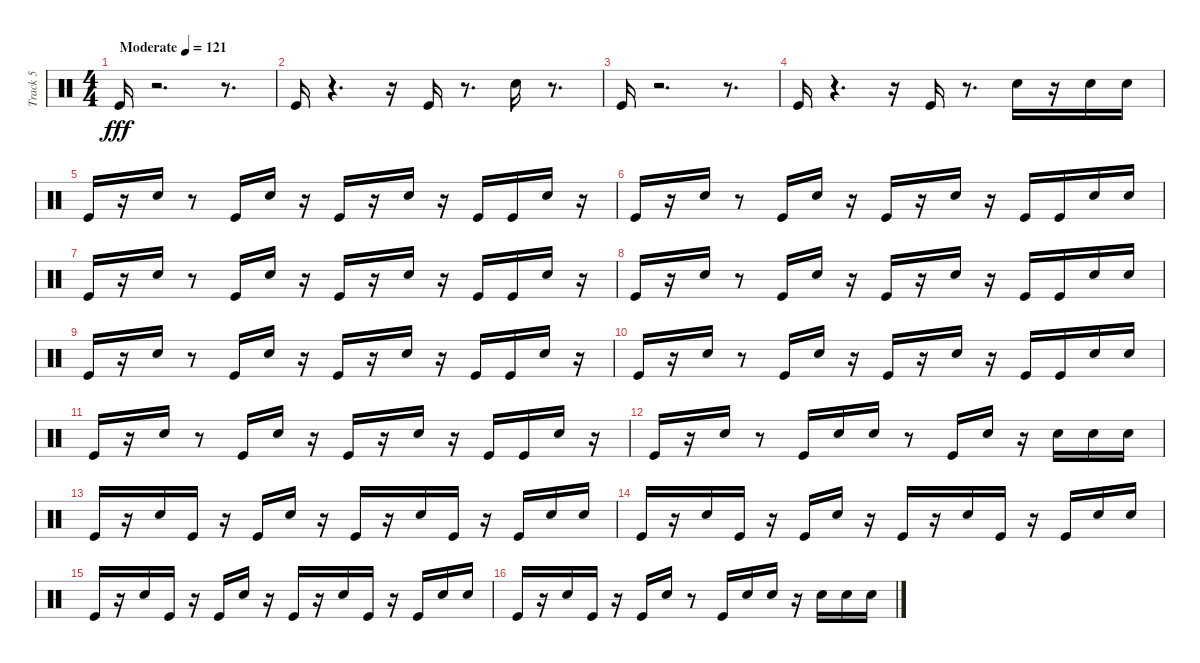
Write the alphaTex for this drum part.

\track ("Track 5" "Track 5") {instrument percussion}
\staff {score}
\articulation defaults
\ts (4 4)
\tempo (121 "Moderate")
\clef neutral
\ks c "Kick (hit)".16{dy fff}
r.2{d} r.8{d} |
"Kick (hit)".16 r.4{d} r.16 "Kick (hit)".16 r.8{d} "Snare (hit) 2".16 r.8{d} |
"Kick (hit)".16 r.2{d} r.8{d} |
"Kick (hit)".16 r.4{d} r.16 "Kick (hit)".16 r.8{d} "Snare (hit) 2".16 r.16 "Snare (hit) 2".16 "Snare (hit) 2".16 |
"Kick (hit)".16 r.16 "Snare (hit) 2".16 r.8 "Kick (hit)".16 "Snare (hit) 2".16 r.16 "Kick (hit)".16 r.16 "Snare (hit) 2".16 r.16 "Kick (hit)".16 "Kick (hit)".16 "Snare (hit) 2".16 r.16 |
"Kick (hit)".16 r.16 "Snare (hit) 2".16 r.8 "Kick (hit)".16 "Snare (hit) 2".16 r.16 "Kick (hit)".16 r.16 "Snare (hit) 2".16 r.16 "Kick (hit)".16 "Kick (hit)".16 "Snare (hit) 2".16 "Snare (hit) 2".16 |
"Kick (hit)".16 r.16 "Snare (hit) 2".16 r.8 "Kick (hit)".16 "Snare (hit) 2".16 r.16 "Kick (hit)".16 r.16 "Snare (hit) 2".16 r.16 "Kick (hit)".16 "Kick (hit)".16 "Snare (hit) 2".16 r.16 |
"Kick (hit)".16 r.16 "Snare (hit) 2".16 r.8 "Kick (hit)".16 "Snare (hit) 2".16 r.16 "Kick (hit)".16 r.16 "Snare (hit) 2".16 r.16 "Kick (hit)".16 "Kick (hit)".16 "Snare (hit) 2".16 "Snare (hit) 2".16 |
"Kick (hit)".16 r.16 "Snare (hit) 2".16 r.8 "Kick (hit)".16 "Snare (hit) 2".16 r.16 "Kick (hit)".16 r.16 "Snare (hit) 2".16 r.16 "Kick (hit)".16 "Kick (hit)".16 "Snare (hit) 2".16 r.16 |
"Kick (hit)".16 r.16 "Snare (hit) 2".16 r.8 "Kick (hit)".16 "Snare (hit) 2".16 r.16 "Kick (hit)".16 r.16 "Snare (hit) 2".16 r.16 "Kick (hit)".16 "Kick (hit)".16 "Snare (hit) 2".16 "Snare (hit) 2".16 |
"Kick (hit)".16 r.16 "Snare (hit) 2".16 r.8 "Kick (hit)".16 "Snare (hit) 2".16 r.16 "Kick (hit)".16 r.16 "Snare (hit) 2".16 r.16 "Kick (hit)".16 "Kick (hit)".16 "Snare (hit) 2".16 r.16 |
"Kick (hit)".16 r.16 "Snare (hit) 2".16 r.8 "Kick (hit)".16 "Snare (hit) 2".16 "Snare (hit) 2".16 r.8 "Kick (hit)".16 "Snare (hit) 2".16 r.16 "Snare (hit) 2".16 "Snare (hit) 2".16 "Snare (hit) 2".16 |
"Kick (hit)".16 r.16 "Snare (hit) 2".16 "Kick (hit)".16 r.16 "Kick (hit)".16 "Snare (hit) 2".16 r.16 "Kick (hit)".16 r.16 "Snare (hit) 2".16 "Kick (hit)".16 r.16 "Kick (hit)".16 "Snare (hit) 2".16 "Snare (hit) 2".16 |
"Kick (hit)".16 r.16 "Snare (hit) 2".16 "Kick (hit)".16 r.16 "Kick (hit)".16 "Snare (hit) 2".16 r.16 "Kick (hit)".16 r.16 "Snare (hit) 2".16 "Kick (hit)".16 r.16 "Kick (hit)".16 "Snare (hit) 2".16 "Snare (hit) 2".16 |
"Kick (hit)".16 r.16 "Snare (hit) 2".16 "Kick (hit)".16 r.16 "Kick (hit)".16 "Snare (hit) 2".16 r.16 "Kick (hit)".16 r.16 "Snare (hit) 2".16 "Kick (hit)".16 r.16 "Kick (hit)".16 "Snare (hit) 2".16 "Snare (hit) 2".16 |
"Kick (hit)".16 r.16 "Snare (hit) 2".16 "Kick (hit)".16 r.16 "Kick (hit)".16 "Snare (hit) 2".16 r.8 "Kick (hit)".16 "Snare (hit) 2".16 "Snare (hit) 2".16 r.16 "Snare (hit) 2".16 "Snare (hit) 2".16 "Snare (hit) 2".16
